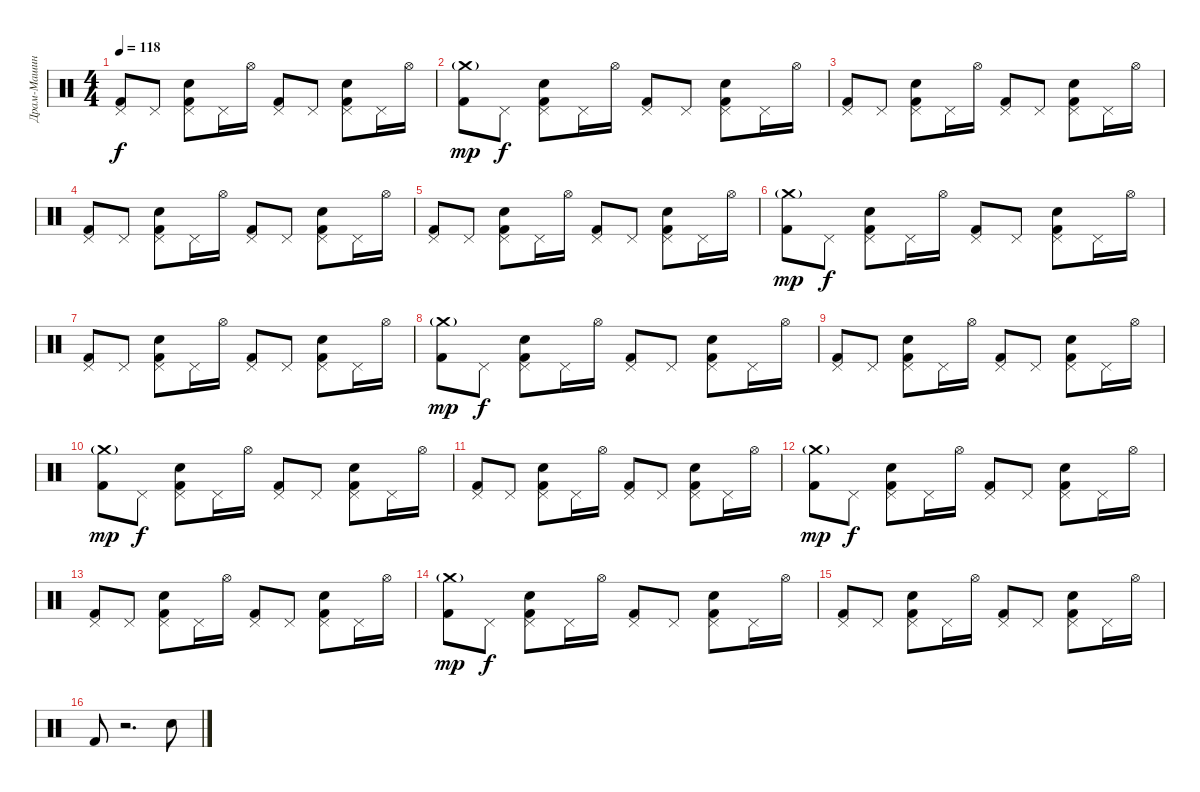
\track ("Драм-Машина" "Драм-Машин") {instrument percussion}
\staff {score}
\articulation defaults
\ts (4 4)
\tempo 118
\clef neutral
\ks c
("Pedal Hi-Hat (hit)" "Kick (hit) 2").8{dy f} "Pedal Hi-Hat (hit)".8 ("Pedal Hi-Hat (hit)" "Electric Snare (hit)" "Kick (hit) 2").8 "Pedal Hi-Hat (hit)".16 "Hi-Hat (open)".16 ("Pedal Hi-Hat (hit)" "Kick (hit) 2").8 "Pedal Hi-Hat (hit)".8 ("Pedal Hi-Hat (hit)" "Electric Snare (hit)" "Kick (hit) 2").8 "Pedal Hi-Hat (hit)".16 "Hi-Hat (open)".16 |
("Crash medium (hit)"{g} "Kick (hit) 2").8{dy mp} "Pedal Hi-Hat (hit)".8{dy f} ("Pedal Hi-Hat (hit)" "Electric Snare (hit)" "Kick (hit) 2").8 "Pedal Hi-Hat (hit)".16 "Hi-Hat (open)".16 ("Pedal Hi-Hat (hit)" "Kick (hit) 2").8 "Pedal Hi-Hat (hit)".8 ("Pedal Hi-Hat (hit)" "Electric Snare (hit)" "Kick (hit) 2").8 "Pedal Hi-Hat (hit)".16 "Hi-Hat (open)".16 |
("Pedal Hi-Hat (hit)" "Kick (hit) 2").8 "Pedal Hi-Hat (hit)".8 ("Pedal Hi-Hat (hit)" "Electric Snare (hit)" "Kick (hit) 2").8 "Pedal Hi-Hat (hit)".16 "Hi-Hat (open)".16 ("Pedal Hi-Hat (hit)" "Kick (hit) 2").8 "Pedal Hi-Hat (hit)".8 ("Pedal Hi-Hat (hit)" "Electric Snare (hit)" "Kick (hit) 2").8 "Pedal Hi-Hat (hit)".16 "Hi-Hat (open)".16 |
("Pedal Hi-Hat (hit)" "Kick (hit) 2").8 "Pedal Hi-Hat (hit)".8 ("Pedal Hi-Hat (hit)" "Electric Snare (hit)" "Kick (hit) 2").8 "Pedal Hi-Hat (hit)".16 "Hi-Hat (open)".16 ("Pedal Hi-Hat (hit)" "Kick (hit) 2").8 "Pedal Hi-Hat (hit)".8 ("Pedal Hi-Hat (hit)" "Electric Snare (hit)" "Kick (hit) 2").8 "Pedal Hi-Hat (hit)".16 "Hi-Hat (open)".16 |
("Pedal Hi-Hat (hit)" "Kick (hit) 2").8 "Pedal Hi-Hat (hit)".8 ("Pedal Hi-Hat (hit)" "Electric Snare (hit)" "Kick (hit) 2").8 "Pedal Hi-Hat (hit)".16 "Hi-Hat (open)".16 ("Pedal Hi-Hat (hit)" "Kick (hit) 2").8 "Pedal Hi-Hat (hit)".8 ("Pedal Hi-Hat (hit)" "Electric Snare (hit)" "Kick (hit) 2").8 "Pedal Hi-Hat (hit)".16 "Hi-Hat (open)".16 |
("Crash medium (hit)"{g} "Kick (hit) 2").8{dy mp} "Pedal Hi-Hat (hit)".8{dy f} ("Pedal Hi-Hat (hit)" "Electric Snare (hit)" "Kick (hit) 2").8 "Pedal Hi-Hat (hit)".16 "Hi-Hat (open)".16 ("Pedal Hi-Hat (hit)" "Kick (hit) 2").8 "Pedal Hi-Hat (hit)".8 ("Pedal Hi-Hat (hit)" "Electric Snare (hit)" "Kick (hit) 2").8 "Pedal Hi-Hat (hit)".16 "Hi-Hat (open)".16 |
("Pedal Hi-Hat (hit)" "Kick (hit) 2").8 "Pedal Hi-Hat (hit)".8 ("Pedal Hi-Hat (hit)" "Electric Snare (hit)" "Kick (hit) 2").8 "Pedal Hi-Hat (hit)".16 "Hi-Hat (open)".16 ("Pedal Hi-Hat (hit)" "Kick (hit) 2").8 "Pedal Hi-Hat (hit)".8 ("Pedal Hi-Hat (hit)" "Electric Snare (hit)" "Kick (hit) 2").8 "Pedal Hi-Hat (hit)".16 "Hi-Hat (open)".16 |
("Crash medium (hit)"{g} "Kick (hit) 2").8{dy mp} "Pedal Hi-Hat (hit)".8{dy f} ("Pedal Hi-Hat (hit)" "Electric Snare (hit)" "Kick (hit) 2").8 "Pedal Hi-Hat (hit)".16 "Hi-Hat (open)".16 ("Pedal Hi-Hat (hit)" "Kick (hit) 2").8 "Pedal Hi-Hat (hit)".8 ("Pedal Hi-Hat (hit)" "Electric Snare (hit)" "Kick (hit) 2").8 "Pedal Hi-Hat (hit)".16 "Hi-Hat (open)".16 |
("Pedal Hi-Hat (hit)" "Kick (hit) 2").8 "Pedal Hi-Hat (hit)".8 ("Pedal Hi-Hat (hit)" "Electric Snare (hit)" "Kick (hit) 2").8 "Pedal Hi-Hat (hit)".16 "Hi-Hat (open)".16 ("Pedal Hi-Hat (hit)" "Kick (hit) 2").8 "Pedal Hi-Hat (hit)".8 ("Pedal Hi-Hat (hit)" "Electric Snare (hit)" "Kick (hit) 2").8 "Pedal Hi-Hat (hit)".16 "Hi-Hat (open)".16 |
("Crash medium (hit)"{g} "Kick (hit) 2").8{dy mp} "Pedal Hi-Hat (hit)".8{dy f} ("Pedal Hi-Hat (hit)" "Electric Snare (hit)" "Kick (hit) 2").8 "Pedal Hi-Hat (hit)".16 "Hi-Hat (open)".16 ("Pedal Hi-Hat (hit)" "Kick (hit) 2").8 "Pedal Hi-Hat (hit)".8 ("Pedal Hi-Hat (hit)" "Electric Snare (hit)" "Kick (hit) 2").8 "Pedal Hi-Hat (hit)".16 "Hi-Hat (open)".16 |
("Pedal Hi-Hat (hit)" "Kick (hit) 2").8 "Pedal Hi-Hat (hit)".8 ("Pedal Hi-Hat (hit)" "Electric Snare (hit)" "Kick (hit) 2").8 "Pedal Hi-Hat (hit)".16 "Hi-Hat (open)".16 ("Pedal Hi-Hat (hit)" "Kick (hit) 2").8 "Pedal Hi-Hat (hit)".8 ("Pedal Hi-Hat (hit)" "Electric Snare (hit)" "Kick (hit) 2").8 "Pedal Hi-Hat (hit)".16 "Hi-Hat (open)".16 |
("Crash medium (hit)"{g} "Kick (hit) 2").8{dy mp} "Pedal Hi-Hat (hit)".8{dy f} ("Pedal Hi-Hat (hit)" "Electric Snare (hit)" "Kick (hit) 2").8 "Pedal Hi-Hat (hit)".16 "Hi-Hat (open)".16 ("Pedal Hi-Hat (hit)" "Kick (hit) 2").8 "Pedal Hi-Hat (hit)".8 ("Pedal Hi-Hat (hit)" "Electric Snare (hit)" "Kick (hit) 2").8 "Pedal Hi-Hat (hit)".16 "Hi-Hat (open)".16 |
("Pedal Hi-Hat (hit)" "Kick (hit) 2").8 "Pedal Hi-Hat (hit)".8 ("Pedal Hi-Hat (hit)" "Electric Snare (hit)" "Kick (hit) 2").8 "Pedal Hi-Hat (hit)".16 "Hi-Hat (open)".16 ("Pedal Hi-Hat (hit)" "Kick (hit) 2").8 "Pedal Hi-Hat (hit)".8 ("Pedal Hi-Hat (hit)" "Electric Snare (hit)" "Kick (hit) 2").8 "Pedal Hi-Hat (hit)".16 "Hi-Hat (open)".16 |
("Crash medium (hit)"{g} "Kick (hit) 2").8{dy mp} "Pedal Hi-Hat (hit)".8{dy f} ("Pedal Hi-Hat (hit)" "Electric Snare (hit)" "Kick (hit) 2").8 "Pedal Hi-Hat (hit)".16 "Hi-Hat (open)".16 ("Pedal Hi-Hat (hit)" "Kick (hit) 2").8 "Pedal Hi-Hat (hit)".8 ("Pedal Hi-Hat (hit)" "Electric Snare (hit)" "Kick (hit) 2").8 "Pedal Hi-Hat (hit)".16 "Hi-Hat (open)".16 |
("Pedal Hi-Hat (hit)" "Kick (hit) 2").8 "Pedal Hi-Hat (hit)".8 ("Pedal Hi-Hat (hit)" "Electric Snare (hit)" "Kick (hit) 2").8 "Pedal Hi-Hat (hit)".16 "Hi-Hat (open)".16 ("Pedal Hi-Hat (hit)" "Kick (hit) 2").8 "Pedal Hi-Hat (hit)".8 ("Pedal Hi-Hat (hit)" "Electric Snare (hit)" "Kick (hit) 2").8 "Pedal Hi-Hat (hit)".16 "Hi-Hat (open)".16 |
"Kick (hit) 2".8 r.2{d} "Electric Snare (hit)".8
